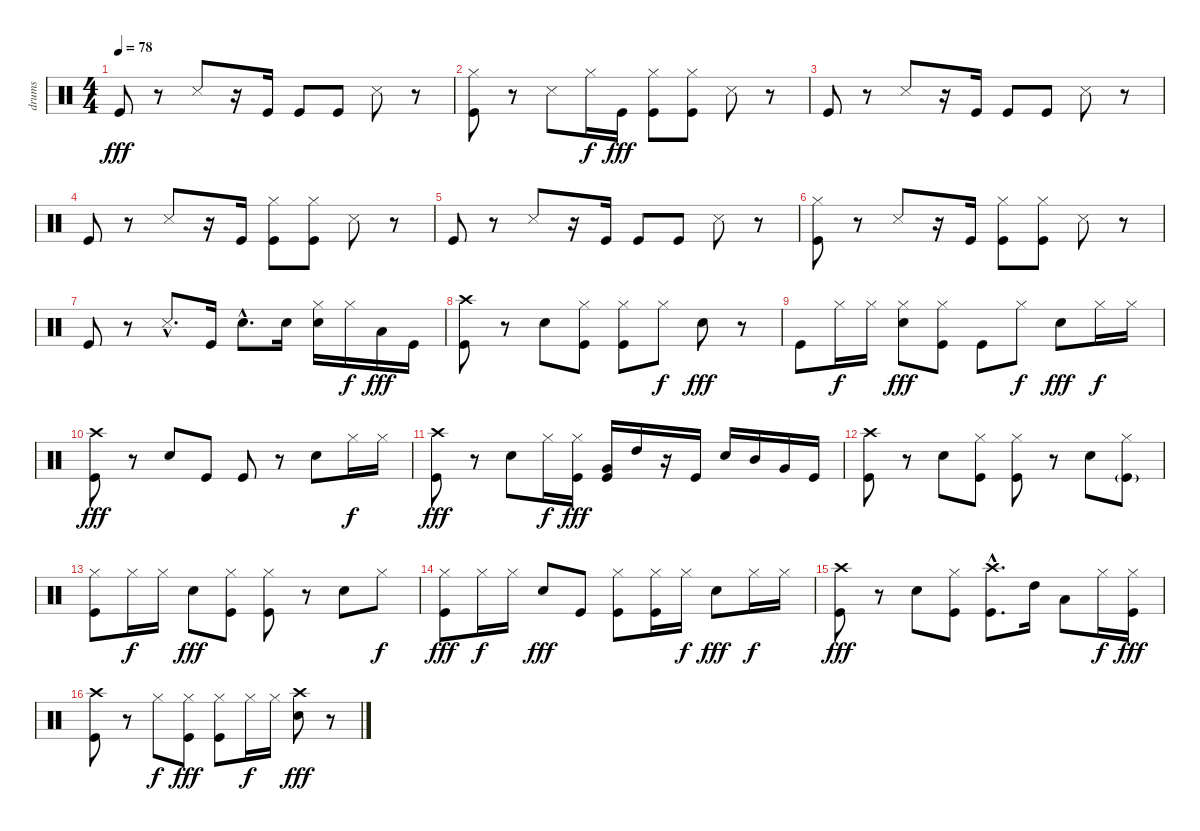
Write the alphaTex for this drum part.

\track ("drums" "drums") {instrument percussion}
\staff {score}
\articulation defaults
\ts (4 4)
\tempo 78
\clef neutral
\ks c "Kick (hit)".8{txt " " dy fff}
r.8 "Snare (side stick) 3".8 r.16 "Kick (hit)".16 "Kick (hit)".8 "Kick (hit)".8 "Snare (side stick) 3".8 r.8 |
("Hi-Hat (closed)" "Kick (hit)").8{txt " "} r.8 "Snare (side stick) 3".8 "Hi-Hat (closed)".16{dy f} "Kick (hit)".16{dy fff} ("Hi-Hat (closed)" "Kick (hit)").8 ("Hi-Hat (closed)" "Kick (hit)").8 "Snare (side stick) 3".8 r.8 |
"Kick (hit)".8{txt " "} r.8 "Snare (side stick) 3".8 r.16 "Kick (hit)".16 "Kick (hit)".8 "Kick (hit)".8 "Snare (side stick) 3".8 r.8 |
"Kick (hit)".8{txt " "} r.8 "Snare (side stick) 3".8 r.16 "Kick (hit)".16 ("Hi-Hat (closed)" "Kick (hit)").8 ("Hi-Hat (closed)" "Kick (hit)").8 "Snare (side stick) 3".8 r.8 |
"Kick (hit)".8{txt " "} r.8 "Snare (side stick) 3".8 r.16 "Kick (hit)".16 "Kick (hit)".8 "Kick (hit)".8 "Snare (side stick) 3".8 r.8 |
("Hi-Hat (closed)" "Kick (hit)").8{txt " "} r.8 "Snare (side stick) 3".8 r.16 "Kick (hit)".16 ("Hi-Hat (closed)" "Kick (hit)").8 ("Hi-Hat (closed)" "Kick (hit)").8 "Snare (side stick) 3".8 r.8 |
"Kick (hit)".8{txt " "} r.8 "Snare (side stick) 3"{hac}.8{d} "Kick (hit)".16 "Electric Snare (hit)"{hac}.8{d} "Electric Snare (hit)".16 ("Electric Snare (hit)" "Hi-Hat (closed)").16 "Hi-Hat (closed)".16{dy f} "Low Tom (hit)".16{dy fff} "Kick (hit)".16 |
("Crash high (hit)" "Kick (hit)").8{txt " "} r.8 "Electric Snare (hit)".8 ("Hi-Hat (closed)" "Kick (hit)").8 ("Hi-Hat (closed)" "Kick (hit)").8 "Hi-Hat (closed)".8{dy f} "Electric Snare (hit)".8{dy fff} r.8 |
"Kick (hit)".8{txt " "} "Hi-Hat (closed)".16{dy f} "Hi-Hat (closed)".16 ("Electric Snare (hit)" "Hi-Hat (closed)").8{dy fff} ("Hi-Hat (closed)" "Kick (hit)").8 "Kick (hit)".8 "Hi-Hat (closed)".8{dy f} "Electric Snare (hit)".8{dy fff} "Hi-Hat (closed)".16{dy f} "Hi-Hat (closed)".16 |
("Crash high (hit)" "Kick (hit)").8{txt " " dy fff} r.8 "Electric Snare (hit)".8 "Kick (hit)".8 "Kick (hit)".8 r.8 "Electric Snare (hit)".8 "Hi-Hat (closed)".16{dy f} "Hi-Hat (closed)".16 |
("Crash high (hit)" "Kick (hit)").8{txt " " dy fff} r.8 "Electric Snare (hit)".8 "Hi-Hat (closed)".16{dy f} ("Hi-Hat (closed)" "Kick (hit)").16{dy fff} ("Very Low Tom (hit)" "Kick (hit)").16 "High Tom (hit)".16 r.16 "Kick (hit)".16 "Electric Snare (hit)".16 "Mid Tom (hit)".16 "Very Low Tom (hit)".16 "Kick (hit)".16 |
("Crash high (hit)" "Kick (hit)").8{txt " "} r.8 "Electric Snare (hit)".8 ("Hi-Hat (closed)" "Kick (hit)").8 ("Hi-Hat (closed)" "Kick (hit)").8 r.8 "Electric Snare (hit)".8 ("Hi-Hat (closed)" "Kick (hit)"{g}).8 |
("Hi-Hat (closed)" "Kick (hit)").8{txt " "} "Hi-Hat (closed)".16{dy f} "Hi-Hat (closed)".16 "Electric Snare (hit)".8{dy fff} ("Hi-Hat (closed)" "Kick (hit)").8 ("Hi-Hat (closed)" "Kick (hit)").8 r.8 "Electric Snare (hit)".8 "Hi-Hat (closed)".8{dy f} |
("Hi-Hat (closed)" "Kick (hit)").8{txt " " dy fff} "Hi-Hat (closed)".16{dy f} "Hi-Hat (closed)".16 "Electric Snare (hit)".8{dy fff} "Kick (hit)".8 ("Hi-Hat (closed)" "Kick (hit)").8 ("Hi-Hat (closed)" "Kick (hit)").16 "Hi-Hat (closed)".16{dy f} "Electric Snare (hit)".8{dy fff} "Hi-Hat (closed)".16{dy f} "Hi-Hat (closed)".16 |
("Crash high (hit)" "Kick (hit)").8{txt " " dy fff} r.8 "Electric Snare (hit)".8 ("Hi-Hat (closed)" "Kick (hit)").8 ("Crash high (hit)"{hac} "Kick (hit)"{hac}).8{d} "High Tom (hit)".16 "Low Tom (hit)".8 "Hi-Hat (closed)".16{dy f} ("Hi-Hat (closed)" "Kick (hit)").16{dy fff} |
("Crash high (hit)" "Kick (hit)").8{txt " "} r.8 "Hi-Hat (closed)".8{dy f} ("Hi-Hat (closed)" "Kick (hit)").8{dy fff} ("Hi-Hat (closed)" "Kick (hit)").8 "Hi-Hat (closed)".16{dy f} "Hi-Hat (closed)".16 ("Crash high (hit)" "Electric Snare (hit)").8{dy fff} r.8
